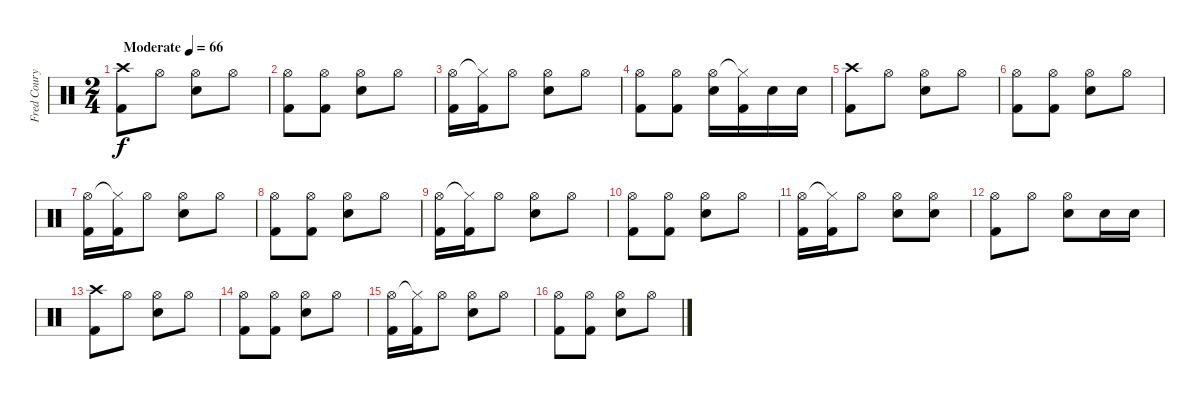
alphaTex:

\track ("Fred Coury" "Fred Coury") {instrument percussion}
\staff {score}
\articulation defaults
\ts (2 4)
\tempo (66 "Moderate")
\clef neutral
\ks c
("Crash high (hit)" "Kick (hit) 2").8{dy f} "Hi-Hat (open)".8 ("Hi-Hat (open)" "Snare (hit) 2").8 "Hi-Hat (open)".8 |
("Hi-Hat (open)" "Kick (hit) 2").8 ("Hi-Hat (open)" "Kick (hit) 2").8 ("Hi-Hat (open)" "Snare (hit) 2").8 "Hi-Hat (open)".8 |
("Hi-Hat (open)" "Kick (hit) 2").16 ("Hi-Hat (closed)"{t} "Kick (hit) 2").16 "Hi-Hat (open)".8 ("Hi-Hat (open)" "Snare (hit) 2").8 "Hi-Hat (open)".8 |
("Hi-Hat (open)" "Kick (hit) 2").8 ("Hi-Hat (open)" "Kick (hit) 2").8 ("Hi-Hat (open)" "Snare (hit) 2").16 ("Hi-Hat (closed)"{t} "Kick (hit) 2").16 "Snare (hit) 2".16 "Snare (hit) 2".16 |
("Crash high (hit)" "Kick (hit) 2").8 "Hi-Hat (open)".8 ("Hi-Hat (open)" "Snare (hit) 2").8 "Hi-Hat (open)".8 |
("Hi-Hat (open)" "Kick (hit) 2").8 ("Hi-Hat (open)" "Kick (hit) 2").8 ("Hi-Hat (open)" "Snare (hit) 2").8 "Hi-Hat (open)".8 |
("Hi-Hat (open)" "Kick (hit) 2").16 ("Hi-Hat (closed)"{t} "Kick (hit) 2").16 "Hi-Hat (open)".8 ("Hi-Hat (open)" "Snare (hit) 2").8 "Hi-Hat (open)".8 |
("Hi-Hat (open)" "Kick (hit) 2").8 ("Hi-Hat (open)" "Kick (hit) 2").8 ("Hi-Hat (open)" "Snare (hit) 2").8 "Hi-Hat (open)".8 |
("Hi-Hat (open)" "Kick (hit) 2").16 ("Hi-Hat (closed)"{t} "Kick (hit) 2").16 "Hi-Hat (open)".8 ("Hi-Hat (open)" "Snare (hit) 2").8 "Hi-Hat (open)".8 |
("Hi-Hat (open)" "Kick (hit) 2").8 ("Hi-Hat (open)" "Kick (hit) 2").8 ("Hi-Hat (open)" "Snare (hit) 2").8 "Hi-Hat (open)".8 |
("Hi-Hat (open)" "Kick (hit) 2").16 ("Hi-Hat (closed)"{t} "Kick (hit) 2").16 "Hi-Hat (open)".8 ("Hi-Hat (open)" "Snare (hit) 2").8 ("Hi-Hat (open)" "Snare (hit) 2").8 |
("Hi-Hat (open)" "Kick (hit) 2").8 "Hi-Hat (open)".8 ("Hi-Hat (open)" "Snare (hit) 2").8 "Snare (hit) 2".16 "Snare (hit) 2".16 |
("Crash high (hit)" "Kick (hit) 2").8 "Hi-Hat (open)".8 ("Hi-Hat (open)" "Snare (hit) 2").8 "Hi-Hat (open)".8 |
("Hi-Hat (open)" "Kick (hit) 2").8 ("Hi-Hat (open)" "Kick (hit) 2").8 ("Hi-Hat (open)" "Snare (hit) 2").8 "Hi-Hat (open)".8 |
("Hi-Hat (open)" "Kick (hit) 2").16 ("Hi-Hat (closed)"{t} "Kick (hit) 2").16 "Hi-Hat (open)".8 ("Hi-Hat (open)" "Snare (hit) 2").8 "Hi-Hat (open)".8 |
("Hi-Hat (open)" "Kick (hit) 2").8 ("Hi-Hat (open)" "Kick (hit) 2").8 ("Hi-Hat (open)" "Snare (hit) 2").8 "Hi-Hat (open)".8
